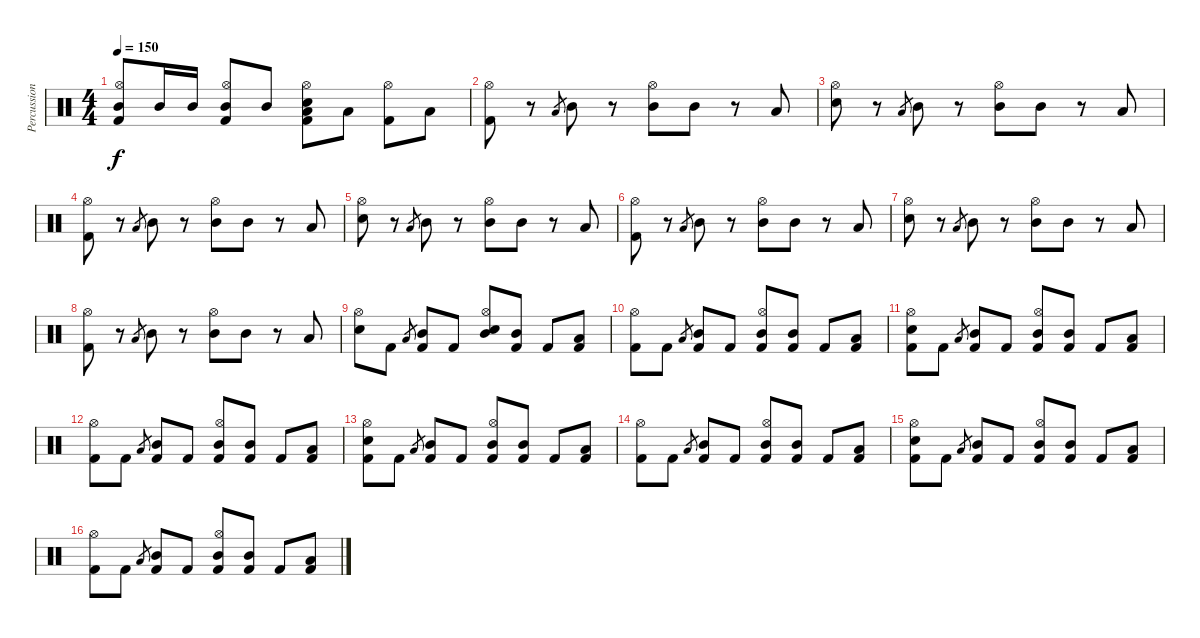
\track ("Percussion" "Percussion") {instrument percussion}
\staff {score}
\articulation defaults
\ts (4 4)
\tempo 150
\clef neutral
\ks c
("Mid Tom (hit)" "Hi-Hat (open)" "Kick (hit) 2").8{dy f} "Mid Tom (hit)".16 "Mid Tom (hit)".16 ("Mid Tom (hit)" "Hi-Hat (open)" "Kick (hit) 2").8 "Mid Tom (hit)".8 ("Low Tom (hit)" "Hi-Hat (open)" "Electric Snare (hit)" "Kick (hit) 2").8 "Low Tom (hit)".8 ("Hi-Hat (open)" "Kick (hit) 2").8 "Low Tom (hit)".8 |
("Hi-Hat (open)" "Kick (hit) 2").8 r.8 "Low Tom (hit)".8{gr} "Mid Tom (hit)".8 r.8 ("Mid Tom (hit)" "Hi-Hat (open)").8 "Mid Tom (hit)".8 r.8 "Low Tom (hit)".8 |
("Hi-Hat (open)" "Electric Snare (hit)").8 r.8 "Low Tom (hit)".8{gr} "Mid Tom (hit)".8 r.8 ("Mid Tom (hit)" "Hi-Hat (open)").8 "Mid Tom (hit)".8 r.8 "Low Tom (hit)".8 |
("Hi-Hat (open)" "Kick (hit) 2").8 r.8 "Low Tom (hit)".8{gr} "Mid Tom (hit)".8 r.8 ("Mid Tom (hit)" "Hi-Hat (open)").8 "Mid Tom (hit)".8 r.8 "Low Tom (hit)".8 |
("Hi-Hat (open)" "Electric Snare (hit)").8 r.8 "Low Tom (hit)".8{gr} "Mid Tom (hit)".8 r.8 ("Mid Tom (hit)" "Hi-Hat (open)").8 "Mid Tom (hit)".8 r.8 "Low Tom (hit)".8 |
("Hi-Hat (open)" "Kick (hit) 2").8 r.8 "Low Tom (hit)".8{gr} "Mid Tom (hit)".8 r.8 ("Mid Tom (hit)" "Hi-Hat (open)").8 "Mid Tom (hit)".8 r.8 "Low Tom (hit)".8 |
("Hi-Hat (open)" "Electric Snare (hit)").8 r.8 "Low Tom (hit)".8{gr} "Mid Tom (hit)".8 r.8 ("Mid Tom (hit)" "Hi-Hat (open)").8 "Mid Tom (hit)".8 r.8 "Low Tom (hit)".8 |
("Hi-Hat (open)" "Kick (hit) 2").8 r.8 "Low Tom (hit)".8{gr} "Mid Tom (hit)".8 r.8 ("Mid Tom (hit)" "Hi-Hat (open)").8 "Mid Tom (hit)".8 r.8 "Low Tom (hit)".8 |
("Hi-Hat (open)" "Electric Snare (hit)").8 "Kick (hit) 2".8 "Low Tom (hit)".8{gr} ("Mid Tom (hit)" "Kick (hit) 2").8 "Kick (hit) 2".8 ("Mid Tom (hit)" "Hi-Hat (open)" "Electric Snare (hit)").8 ("Mid Tom (hit)" "Kick (hit) 2").8 "Kick (hit) 2".8 ("Low Tom (hit)" "Kick (hit) 2").8 |
("Hi-Hat (open)" "Kick (hit) 2").8 "Kick (hit) 2".8 "Low Tom (hit)".8{gr} ("Mid Tom (hit)" "Kick (hit) 2").8 "Kick (hit) 2".8 ("Mid Tom (hit)" "Hi-Hat (open)" "Kick (hit) 2").8 ("Mid Tom (hit)" "Kick (hit) 2").8 "Kick (hit) 2".8 ("Low Tom (hit)" "Kick (hit) 2").8 |
("Hi-Hat (open)" "Electric Snare (hit)" "Kick (hit) 2").8 "Kick (hit) 2".8 "Low Tom (hit)".8{gr} ("Mid Tom (hit)" "Kick (hit) 2").8 "Kick (hit) 2".8 ("Mid Tom (hit)" "Hi-Hat (open)" "Kick (hit) 2").8 ("Mid Tom (hit)" "Kick (hit) 2").8 "Kick (hit) 2".8 ("Low Tom (hit)" "Kick (hit) 2").8 |
("Hi-Hat (open)" "Kick (hit) 2").8 "Kick (hit) 2".8 "Low Tom (hit)".8{gr} ("Mid Tom (hit)" "Kick (hit) 2").8 "Kick (hit) 2".8 ("Mid Tom (hit)" "Hi-Hat (open)" "Kick (hit) 2").8 ("Mid Tom (hit)" "Kick (hit) 2").8 "Kick (hit) 2".8 ("Low Tom (hit)" "Kick (hit) 2").8 |
("Hi-Hat (open)" "Electric Snare (hit)" "Kick (hit) 2").8 "Kick (hit) 2".8 "Low Tom (hit)".8{gr} ("Mid Tom (hit)" "Kick (hit) 2").8 "Kick (hit) 2".8 ("Mid Tom (hit)" "Hi-Hat (open)" "Kick (hit) 2").8 ("Mid Tom (hit)" "Kick (hit) 2").8 "Kick (hit) 2".8 ("Low Tom (hit)" "Kick (hit) 2").8 |
("Hi-Hat (open)" "Kick (hit) 2").8 "Kick (hit) 2".8 "Low Tom (hit)".8{gr} ("Mid Tom (hit)" "Kick (hit) 2").8 "Kick (hit) 2".8 ("Mid Tom (hit)" "Hi-Hat (open)" "Kick (hit) 2").8 ("Mid Tom (hit)" "Kick (hit) 2").8 "Kick (hit) 2".8 ("Low Tom (hit)" "Kick (hit) 2").8 |
("Hi-Hat (open)" "Electric Snare (hit)" "Kick (hit) 2").8 "Kick (hit) 2".8 "Low Tom (hit)".8{gr} ("Mid Tom (hit)" "Kick (hit) 2").8 "Kick (hit) 2".8 ("Mid Tom (hit)" "Hi-Hat (open)" "Kick (hit) 2").8 ("Mid Tom (hit)" "Kick (hit) 2").8 "Kick (hit) 2".8 ("Low Tom (hit)" "Kick (hit) 2").8 |
("Hi-Hat (open)" "Kick (hit) 2").8 "Kick (hit) 2".8 "Low Tom (hit)".8{gr} ("Mid Tom (hit)" "Kick (hit) 2").8 "Kick (hit) 2".8 ("Mid Tom (hit)" "Hi-Hat (open)" "Kick (hit) 2").8 ("Mid Tom (hit)" "Kick (hit) 2").8 "Kick (hit) 2".8 ("Low Tom (hit)" "Kick (hit) 2").8
